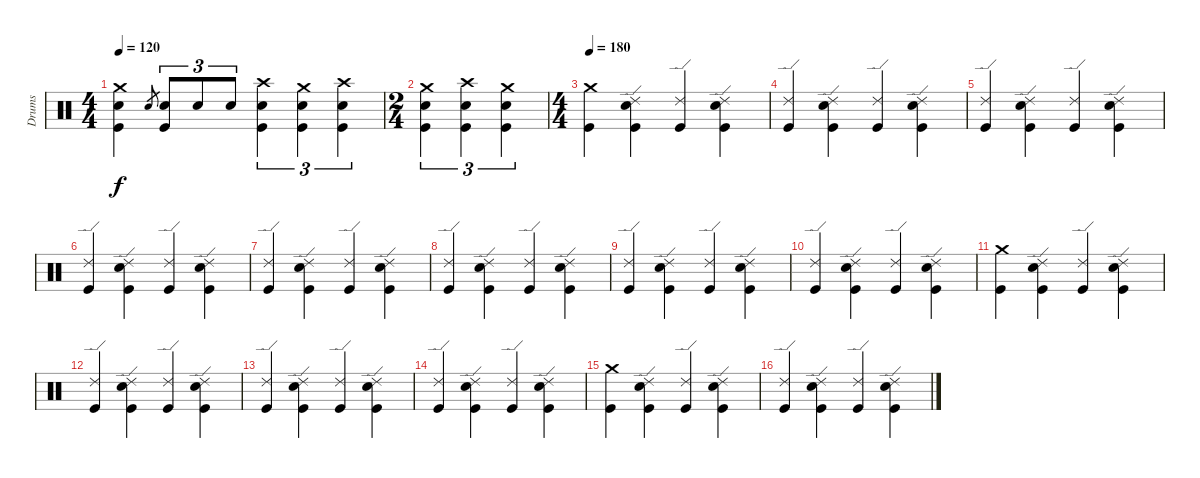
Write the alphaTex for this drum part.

\track ("Drums" "Drums") {instrument percussion}
\staff {score}
\articulation defaults
\ts (4 4)
\tempo 120
\clef neutral
\ks c
("Crash medium (hit)" "Snare (hit) 2" "Kick (hit)").4{dy f} "Snare (hit) 2".8{gr} ("Snare (hit) 2" "Kick (hit)").8{tu (3 2)} "Snare (hit) 2".8{tu (3 2)} "Snare (hit) 2".8{tu (3 2)} ("Crash high (hit)" "Snare (hit) 2" "Kick (hit)").4{tu (3 2)} ("Crash medium (hit)" "Snare (hit) 2" "Kick (hit)").4{tu (3 2)} ("Crash high (hit)" "Snare (hit) 2" "Kick (hit)").4{tu (3 2)} |
\ts (2 4)
("Crash medium (hit)" "Snare (hit) 2" "Kick (hit)").4{tu (3 2)} ("Crash high (hit)" "Snare (hit) 2" "Kick (hit)").4{tu (3 2)} ("Crash medium (hit)" "Snare (hit) 2" "Kick (hit)").4{tu (3 2)} |
\ts (4 4)
\tempo 180
("Crash medium (hit)" "Kick (hit)").4 ("Ride (edge) 2" "Snare (hit) 2" "Kick (hit)").4 ("Ride (edge) 2" "Kick (hit)").4 ("Ride (edge) 2" "Snare (hit) 2" "Kick (hit)").4 |
("Ride (edge) 2" "Kick (hit)").4 ("Ride (edge) 2" "Snare (hit) 2" "Kick (hit)").4 ("Ride (edge) 2" "Kick (hit)").4 ("Ride (edge) 2" "Snare (hit) 2" "Kick (hit)").4 |
("Ride (edge) 2" "Kick (hit)").4 ("Ride (edge) 2" "Snare (hit) 2" "Kick (hit)").4 ("Ride (edge) 2" "Kick (hit)").4 ("Ride (edge) 2" "Snare (hit) 2" "Kick (hit)").4 |
("Ride (edge) 2" "Kick (hit)").4 ("Ride (edge) 2" "Snare (hit) 2" "Kick (hit)").4 ("Ride (edge) 2" "Kick (hit)").4 ("Ride (edge) 2" "Snare (hit) 2" "Kick (hit)").4 |
("Ride (edge) 2" "Kick (hit)").4 ("Ride (edge) 2" "Snare (hit) 2" "Kick (hit)").4 ("Ride (edge) 2" "Kick (hit)").4 ("Ride (edge) 2" "Snare (hit) 2" "Kick (hit)").4 |
("Ride (edge) 2" "Kick (hit)").4 ("Ride (edge) 2" "Snare (hit) 2" "Kick (hit)").4 ("Ride (edge) 2" "Kick (hit)").4 ("Ride (edge) 2" "Snare (hit) 2" "Kick (hit)").4 |
("Ride (edge) 2" "Kick (hit)").4 ("Ride (edge) 2" "Snare (hit) 2" "Kick (hit)").4 ("Ride (edge) 2" "Kick (hit)").4 ("Ride (edge) 2" "Snare (hit) 2" "Kick (hit)").4 |
("Ride (edge) 2" "Kick (hit)").4 ("Ride (edge) 2" "Snare (hit) 2" "Kick (hit)").4 ("Ride (edge) 2" "Kick (hit)").4 ("Ride (edge) 2" "Snare (hit) 2" "Kick (hit)").4 |
("Crash medium (hit)" "Kick (hit)").4 ("Ride (edge) 2" "Snare (hit) 2" "Kick (hit)").4 ("Ride (edge) 2" "Kick (hit)").4 ("Ride (edge) 2" "Snare (hit) 2" "Kick (hit)").4 |
("Ride (edge) 2" "Kick (hit)").4 ("Ride (edge) 2" "Snare (hit) 2" "Kick (hit)").4 ("Ride (edge) 2" "Kick (hit)").4 ("Ride (edge) 2" "Snare (hit) 2" "Kick (hit)").4 |
("Ride (edge) 2" "Kick (hit)").4 ("Ride (edge) 2" "Snare (hit) 2" "Kick (hit)").4 ("Ride (edge) 2" "Kick (hit)").4 ("Ride (edge) 2" "Snare (hit) 2" "Kick (hit)").4 |
("Ride (edge) 2" "Kick (hit)").4 ("Ride (edge) 2" "Snare (hit) 2" "Kick (hit)").4 ("Ride (edge) 2" "Kick (hit)").4 ("Ride (edge) 2" "Snare (hit) 2" "Kick (hit)").4 |
("Crash medium (hit)" "Kick (hit)").4 ("Ride (edge) 2" "Snare (hit) 2" "Kick (hit)").4 ("Ride (edge) 2" "Kick (hit)").4 ("Ride (edge) 2" "Snare (hit) 2" "Kick (hit)").4 |
("Ride (edge) 2" "Kick (hit)").4 ("Ride (edge) 2" "Snare (hit) 2" "Kick (hit)").4 ("Ride (edge) 2" "Kick (hit)").4 ("Ride (edge) 2" "Snare (hit) 2" "Kick (hit)").4
